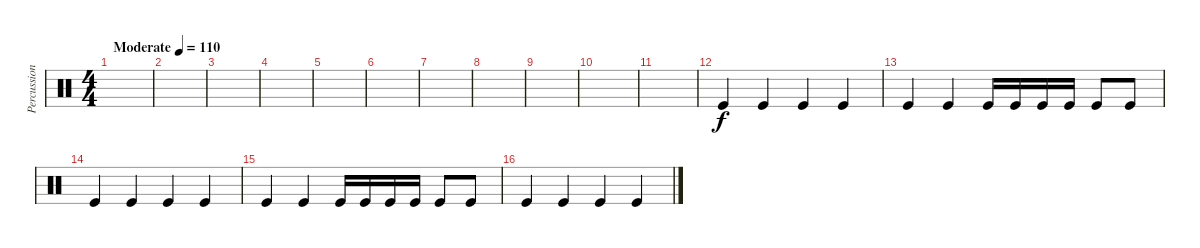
\track ("Percussions" "Percussion") {instrument percussion}
\staff {score}
\articulation defaults
\ts (4 4)
\tempo (110 "Moderate")
\clef neutral
\ks c
|
|
|
|
|
|
|
|
|
|
|
"Kick (hit)".4 "Kick (hit)".4 "Kick (hit)".4 "Kick (hit)".4 |
"Kick (hit)".4 "Kick (hit)".4 "Kick (hit)".16 "Kick (hit)".16 "Kick (hit)".16 "Kick (hit)".16 "Kick (hit)".8 "Kick (hit)".8 |
"Kick (hit)".4 "Kick (hit)".4 "Kick (hit)".4 "Kick (hit)".4 |
"Kick (hit)".4 "Kick (hit)".4 "Kick (hit)".16 "Kick (hit)".16 "Kick (hit)".16 "Kick (hit)".16 "Kick (hit)".8 "Kick (hit)".8 |
"Kick (hit)".4 "Kick (hit)".4 "Kick (hit)".4 "Kick (hit)".4
